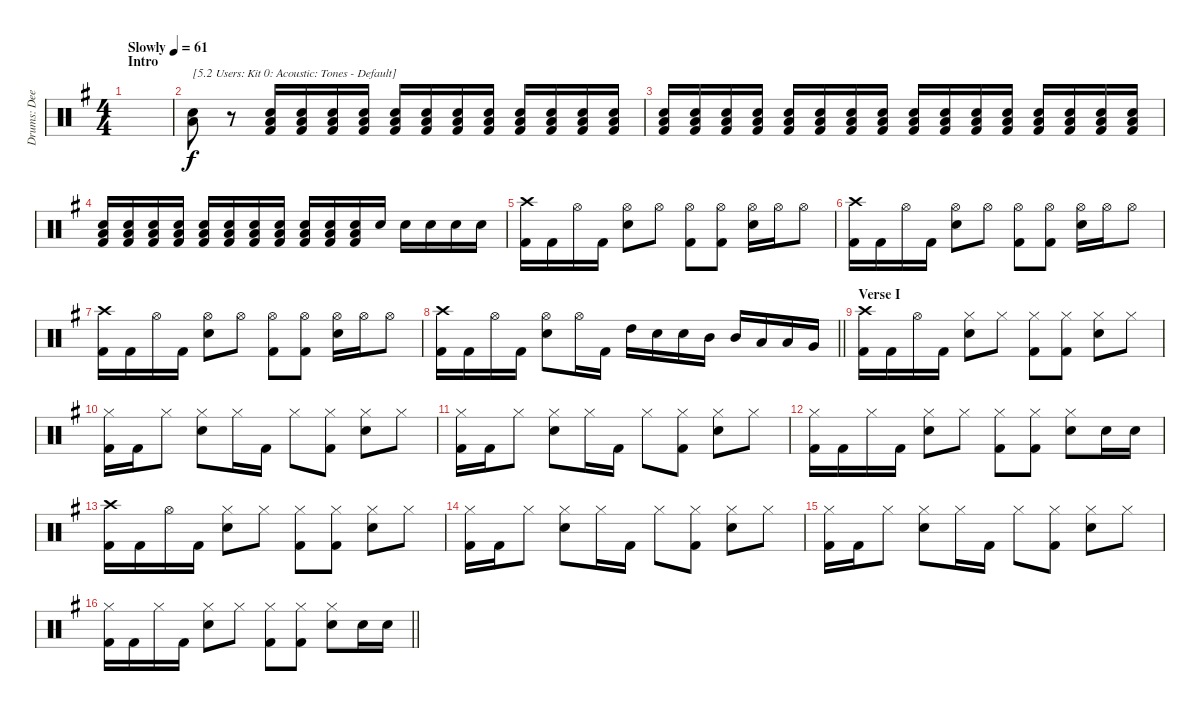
\track ("Drums: Deen" "Drums: Dee") {instrument percussion}
\staff {score}
\articulation defaults
\ts (4 4)
\section ("" "Intro")
\tempo (61 "Slowly")
\clef neutral
\ks g
|
("Electric Snare (hit)" "Low Tom (hit)").8{txt "[5.2 Users: Kit 0: Acoustic: Tones - Default]"} r.8{volume 0} ("Electric Snare (hit)" "Low Tom (hit)" "Kick (hit) 2").16{volume 13} ("Electric Snare (hit)" "Low Tom (hit)" "Kick (hit) 2").16 ("Electric Snare (hit)" "Low Tom (hit)" "Kick (hit) 2").16 ("Electric Snare (hit)" "Low Tom (hit)" "Kick (hit) 2").16 ("Electric Snare (hit)" "Low Tom (hit)" "Kick (hit) 2").16 ("Electric Snare (hit)" "Low Tom (hit)" "Kick (hit) 2").16 ("Electric Snare (hit)" "Low Tom (hit)" "Kick (hit) 2").16 ("Electric Snare (hit)" "Low Tom (hit)" "Kick (hit) 2").16 ("Electric Snare (hit)" "Low Tom (hit)" "Kick (hit) 2").16 ("Electric Snare (hit)" "Low Tom (hit)" "Kick (hit) 2").16 ("Electric Snare (hit)" "Low Tom (hit)" "Kick (hit) 2").16 ("Electric Snare (hit)" "Low Tom (hit)" "Kick (hit) 2").16 |
("Electric Snare (hit)" "Low Tom (hit)" "Kick (hit) 2").16 ("Electric Snare (hit)" "Low Tom (hit)" "Kick (hit) 2").16 ("Electric Snare (hit)" "Low Tom (hit)" "Kick (hit) 2").16 ("Electric Snare (hit)" "Low Tom (hit)" "Kick (hit) 2").16 ("Electric Snare (hit)" "Low Tom (hit)" "Kick (hit) 2").16 ("Electric Snare (hit)" "Low Tom (hit)" "Kick (hit) 2").16 ("Electric Snare (hit)" "Low Tom (hit)" "Kick (hit) 2").16 ("Electric Snare (hit)" "Low Tom (hit)" "Kick (hit) 2").16 ("Electric Snare (hit)" "Low Tom (hit)" "Kick (hit) 2").16 ("Electric Snare (hit)" "Low Tom (hit)" "Kick (hit) 2").16 ("Electric Snare (hit)" "Low Tom (hit)" "Kick (hit) 2").16 ("Electric Snare (hit)" "Low Tom (hit)" "Kick (hit) 2").16 ("Electric Snare (hit)" "Low Tom (hit)" "Kick (hit) 2").16 ("Electric Snare (hit)" "Low Tom (hit)" "Kick (hit) 2").16 ("Electric Snare (hit)" "Low Tom (hit)" "Kick (hit) 2").16 ("Electric Snare (hit)" "Low Tom (hit)" "Kick (hit) 2").16 |
("Electric Snare (hit)" "Low Tom (hit)" "Kick (hit) 2").16 ("Electric Snare (hit)" "Low Tom (hit)" "Kick (hit) 2").16 ("Electric Snare (hit)" "Low Tom (hit)" "Kick (hit) 2").16 ("Electric Snare (hit)" "Low Tom (hit)" "Kick (hit) 2").16 ("Electric Snare (hit)" "Low Tom (hit)" "Kick (hit) 2").16 ("Electric Snare (hit)" "Low Tom (hit)" "Kick (hit) 2").16 ("Electric Snare (hit)" "Low Tom (hit)" "Kick (hit) 2").16 ("Electric Snare (hit)" "Low Tom (hit)" "Kick (hit) 2").16 ("Electric Snare (hit)" "Low Tom (hit)" "Kick (hit) 2").16 ("Electric Snare (hit)" "Low Tom (hit)" "Kick (hit) 2").16 ("Electric Snare (hit)" "Low Tom (hit)" "Kick (hit) 2").16 "Electric Snare (hit)".16 "Electric Snare (hit)".16 "Electric Snare (hit)".16 "Electric Snare (hit)".16 "Electric Snare (hit)".16 |
("Crash high (hit)" "Kick (hit) 2").16 "Kick (hit) 2".16 "Hi-Hat (open)".16 "Kick (hit) 2".16 ("Hi-Hat (open)" "Electric Snare (hit)").8 "Hi-Hat (open)".8 ("Hi-Hat (open)" "Kick (hit) 2").8 ("Hi-Hat (open)" "Kick (hit) 2").8 ("Hi-Hat (open)" "Electric Snare (hit)").16 "Hi-Hat (open)".16 "Hi-Hat (open)".8 |
("Crash high (hit)" "Kick (hit) 2").16 "Kick (hit) 2".16 "Hi-Hat (open)".16 "Kick (hit) 2".16 ("Hi-Hat (open)" "Electric Snare (hit)").8 "Hi-Hat (open)".8 ("Hi-Hat (open)" "Kick (hit) 2").8 ("Hi-Hat (open)" "Kick (hit) 2").8 ("Hi-Hat (open)" "Electric Snare (hit)").16 "Hi-Hat (open)".16 "Hi-Hat (open)".8 |
("Crash high (hit)" "Kick (hit) 2").16 "Kick (hit) 2".16 "Hi-Hat (open)".16 "Kick (hit) 2".16 ("Hi-Hat (open)" "Electric Snare (hit)").8 "Hi-Hat (open)".8 ("Hi-Hat (open)" "Kick (hit) 2").8 ("Hi-Hat (open)" "Kick (hit) 2").8 ("Hi-Hat (open)" "Electric Snare (hit)").16 "Hi-Hat (open)".16 "Hi-Hat (open)".8 |
\barLineRight lightlight
("Crash high (hit)" "Kick (hit) 2").16 "Kick (hit) 2".16 "Hi-Hat (open)".16 "Kick (hit) 2".16 ("Hi-Hat (open)" "Electric Snare (hit)").8 "Hi-Hat (open)".16 "Kick (hit) 2".16 "High Tom (hit)".16 "Electric Snare (hit)".16 "Electric Snare (hit)".16 "Mid Tom (hit)".16 "Mid Tom (hit)".16 "Low Tom (hit)".16 "Low Tom (hit)".16 "Very Low Tom (hit)".16 |
\section ("" "Verse I")
("Crash high (hit)" "Kick (hit) 2").16 "Kick (hit) 2".16 "Hi-Hat (open)".16 "Kick (hit) 2".16 ("Hi-Hat (closed)" "Electric Snare (hit)").8 "Hi-Hat (closed)".8 ("Hi-Hat (closed)" "Kick (hit) 2").8 ("Hi-Hat (closed)" "Kick (hit) 2").8 ("Hi-Hat (closed)" "Electric Snare (hit)").8 "Hi-Hat (closed)".8 |
("Hi-Hat (closed)" "Kick (hit) 2").16 "Kick (hit) 2".16 "Hi-Hat (closed)".8 ("Hi-Hat (closed)" "Electric Snare (hit)").8 "Hi-Hat (closed)".16 "Kick (hit) 2".16 "Hi-Hat (closed)".8 ("Hi-Hat (closed)" "Kick (hit) 2").8 ("Hi-Hat (closed)" "Electric Snare (hit)").8 "Hi-Hat (closed)".8 |
("Hi-Hat (closed)" "Kick (hit) 2").16 "Kick (hit) 2".16 "Hi-Hat (closed)".8 ("Hi-Hat (closed)" "Electric Snare (hit)").8 "Hi-Hat (closed)".16 "Kick (hit) 2".16 "Hi-Hat (closed)".8 ("Hi-Hat (closed)" "Kick (hit) 2").8 ("Hi-Hat (closed)" "Electric Snare (hit)").8 "Hi-Hat (closed)".8 |
("Hi-Hat (closed)" "Kick (hit) 2").16 "Kick (hit) 2".16 "Hi-Hat (closed)".16 "Kick (hit) 2".16 ("Hi-Hat (closed)" "Electric Snare (hit)").8 "Hi-Hat (closed)".8 ("Hi-Hat (closed)" "Kick (hit) 2").8 ("Hi-Hat (closed)" "Kick (hit) 2").8 ("Hi-Hat (closed)" "Electric Snare (hit)").8 "Electric Snare (hit)".16 "Electric Snare (hit)".16 |
("Crash high (hit)" "Kick (hit) 2").16 "Kick (hit) 2".16 "Hi-Hat (open)".16 "Kick (hit) 2".16 ("Hi-Hat (closed)" "Electric Snare (hit)").8 "Hi-Hat (closed)".8 ("Hi-Hat (closed)" "Kick (hit) 2").8 ("Hi-Hat (closed)" "Kick (hit) 2").8 ("Hi-Hat (closed)" "Electric Snare (hit)").8 "Hi-Hat (closed)".8 |
("Hi-Hat (closed)" "Kick (hit) 2").16 "Kick (hit) 2".16 "Hi-Hat (closed)".8 ("Hi-Hat (closed)" "Electric Snare (hit)").8 "Hi-Hat (closed)".16 "Kick (hit) 2".16 "Hi-Hat (closed)".8 ("Hi-Hat (closed)" "Kick (hit) 2").8 ("Hi-Hat (closed)" "Electric Snare (hit)").8 "Hi-Hat (closed)".8 |
("Hi-Hat (closed)" "Kick (hit) 2").16 "Kick (hit) 2".16 "Hi-Hat (closed)".8 ("Hi-Hat (closed)" "Electric Snare (hit)").8 "Hi-Hat (closed)".16 "Kick (hit) 2".16 "Hi-Hat (closed)".8 ("Hi-Hat (closed)" "Kick (hit) 2").8 ("Hi-Hat (closed)" "Electric Snare (hit)").8 "Hi-Hat (closed)".8 |
\barLineRight lightlight
("Hi-Hat (closed)" "Kick (hit) 2").16 "Kick (hit) 2".16 "Hi-Hat (closed)".16 "Kick (hit) 2".16 ("Hi-Hat (closed)" "Electric Snare (hit)").8 "Hi-Hat (closed)".8 ("Hi-Hat (closed)" "Kick (hit) 2").8 ("Hi-Hat (closed)" "Kick (hit) 2").8 ("Hi-Hat (closed)" "Electric Snare (hit)").8 "Electric Snare (hit)".16 "Electric Snare (hit)".16
